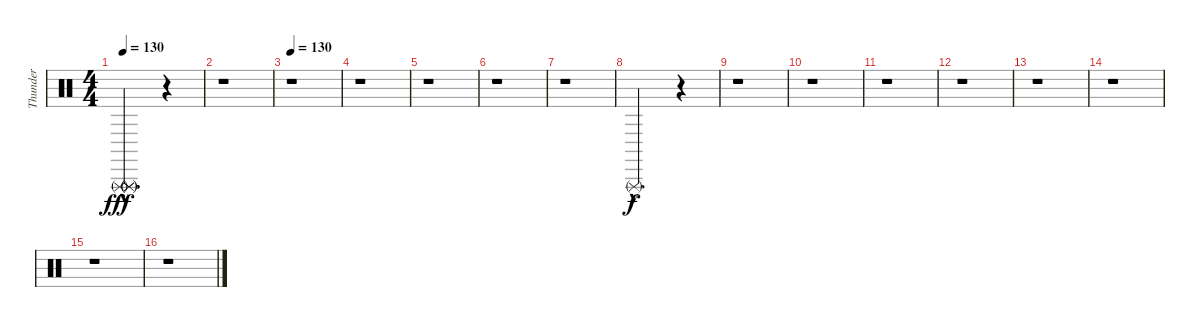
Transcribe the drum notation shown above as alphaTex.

\track ("Thunder" "Thunder") {instrument percussion}
\staff {score}
\articulation defaults
\ts (4 4)
\tempo 130
\clef neutral
\ks c
("Triangle (rnute)"{hac} "Triangle (rnute)"{hac} "Triangle (rnute)"{hac}).2{d dy fff} r.4 |
r.1 |
\tempo 130
r.1 |
r.1 |
r.1 |
r.1 |
r.1 |
"Triangle (rnute)"{hac}.2{d dy f} r.4 |
r.1 |
r.1 |
r.1 |
r.1 |
r.1 |
r.1 |
r.1 |
r.1
